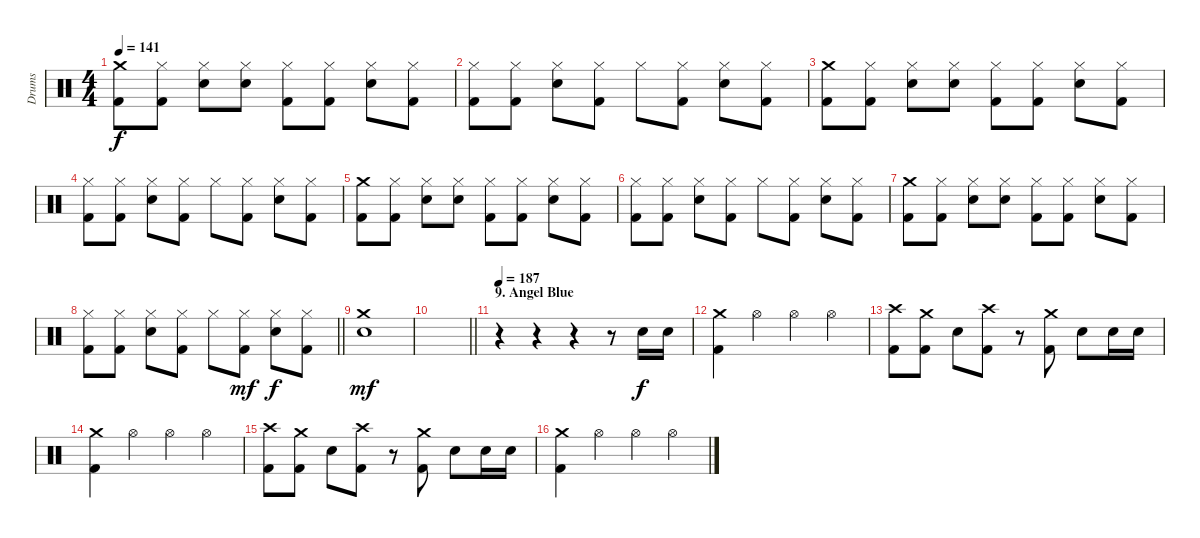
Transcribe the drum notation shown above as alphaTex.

\track ("Drums" "Drums") {instrument percussion}
\staff {score}
\articulation defaults
\ts (4 4)
\tempo 141
\clef neutral
\ks c
("Crash medium (hit)" "Kick (hit) 2").8{dy f} ("Hi-Hat (closed)" "Kick (hit) 2").8 ("Hi-Hat (closed)" "Electric Snare (hit)").8 ("Hi-Hat (closed)" "Electric Snare (hit)").8 ("Hi-Hat (closed)" "Kick (hit) 2").8 ("Hi-Hat (closed)" "Kick (hit) 2").8 ("Hi-Hat (closed)" "Electric Snare (hit)").8 ("Hi-Hat (closed)" "Kick (hit) 2").8 |
("Hi-Hat (closed)" "Kick (hit) 2").8 ("Hi-Hat (closed)" "Kick (hit) 2").8 ("Hi-Hat (closed)" "Electric Snare (hit)").8 ("Hi-Hat (closed)" "Kick (hit) 2").8 "Hi-Hat (closed)".8 ("Hi-Hat (closed)" "Kick (hit) 2").8 ("Hi-Hat (closed)" "Electric Snare (hit)").8 ("Hi-Hat (closed)" "Kick (hit) 2").8 |
("Crash medium (hit)" "Kick (hit) 2").8 ("Hi-Hat (closed)" "Kick (hit) 2").8 ("Hi-Hat (closed)" "Electric Snare (hit)").8 ("Hi-Hat (closed)" "Electric Snare (hit)").8 ("Hi-Hat (closed)" "Kick (hit) 2").8 ("Hi-Hat (closed)" "Kick (hit) 2").8 ("Hi-Hat (closed)" "Electric Snare (hit)").8 ("Hi-Hat (closed)" "Kick (hit) 2").8 |
("Hi-Hat (closed)" "Kick (hit) 2").8 ("Hi-Hat (closed)" "Kick (hit) 2").8 ("Hi-Hat (closed)" "Electric Snare (hit)").8 ("Hi-Hat (closed)" "Kick (hit) 2").8 "Hi-Hat (closed)".8 ("Hi-Hat (closed)" "Kick (hit) 2").8 ("Hi-Hat (closed)" "Electric Snare (hit)").8 ("Hi-Hat (closed)" "Kick (hit) 2").8 |
("Crash medium (hit)" "Kick (hit) 2").8 ("Hi-Hat (closed)" "Kick (hit) 2").8 ("Hi-Hat (closed)" "Electric Snare (hit)").8 ("Hi-Hat (closed)" "Electric Snare (hit)").8 ("Hi-Hat (closed)" "Kick (hit) 2").8 ("Hi-Hat (closed)" "Kick (hit) 2").8 ("Hi-Hat (closed)" "Electric Snare (hit)").8 ("Hi-Hat (closed)" "Kick (hit) 2").8 |
("Hi-Hat (closed)" "Kick (hit) 2").8 ("Hi-Hat (closed)" "Kick (hit) 2").8 ("Hi-Hat (closed)" "Electric Snare (hit)").8 ("Hi-Hat (closed)" "Kick (hit) 2").8 "Hi-Hat (closed)".8 ("Hi-Hat (closed)" "Kick (hit) 2").8 ("Hi-Hat (closed)" "Electric Snare (hit)").8 ("Hi-Hat (closed)" "Kick (hit) 2").8 |
("Crash medium (hit)" "Kick (hit) 2").8 ("Hi-Hat (closed)" "Kick (hit) 2").8 ("Hi-Hat (closed)" "Electric Snare (hit)").8 ("Hi-Hat (closed)" "Electric Snare (hit)").8 ("Hi-Hat (closed)" "Kick (hit) 2").8 ("Hi-Hat (closed)" "Kick (hit) 2").8 ("Hi-Hat (closed)" "Electric Snare (hit)").8 ("Hi-Hat (closed)" "Kick (hit) 2").8 |
\barLineRight lightlight
("Hi-Hat (closed)" "Kick (hit) 2").8 ("Hi-Hat (closed)" "Kick (hit) 2").8 ("Hi-Hat (closed)" "Electric Snare (hit)").8 ("Hi-Hat (closed)" "Kick (hit) 2").8 "Hi-Hat (closed)".8 ("Hi-Hat (closed)" "Kick (hit) 2").8{dy mf} ("Hi-Hat (closed)" "Electric Snare (hit)").8{dy f} ("Hi-Hat (closed)" "Kick (hit) 2").8 |
("Crash medium (hit)" "Electric Snare (hit)").1{dy mf} |
\barLineRight lightlight
|
\section ("" "9. Angel Blue")
\tempo 187
r.4 r.4 r.4 r.8 "Electric Snare (hit)".16{dy f} "Electric Snare (hit)".16 |
("Crash medium (hit)" "Kick (hit) 2").4 "Hi-Hat (open)".4 "Hi-Hat (open)".4 "Hi-Hat (open)".4 |
("Crash high (hit)" "Kick (hit) 2").8 ("Crash medium (hit)" "Kick (hit) 2").8 "Electric Snare (hit)".8 ("Crash high (hit)" "Kick (hit) 2").8 r.8 ("Crash medium (hit)" "Kick (hit) 2").8 "Electric Snare (hit)".8 "Electric Snare (hit)".16 "Electric Snare (hit)".16 |
("Crash medium (hit)" "Kick (hit) 2").4 "Hi-Hat (open)".4 "Hi-Hat (open)".4 "Hi-Hat (open)".4 |
("Crash high (hit)" "Kick (hit) 2").8 ("Crash medium (hit)" "Kick (hit) 2").8 "Electric Snare (hit)".8 ("Crash high (hit)" "Kick (hit) 2").8 r.8 ("Crash medium (hit)" "Kick (hit) 2").8 "Electric Snare (hit)".8 "Electric Snare (hit)".16 "Electric Snare (hit)".16 |
("Crash medium (hit)" "Kick (hit) 2").4 "Hi-Hat (open)".4 "Hi-Hat (open)".4 "Hi-Hat (open)".4
